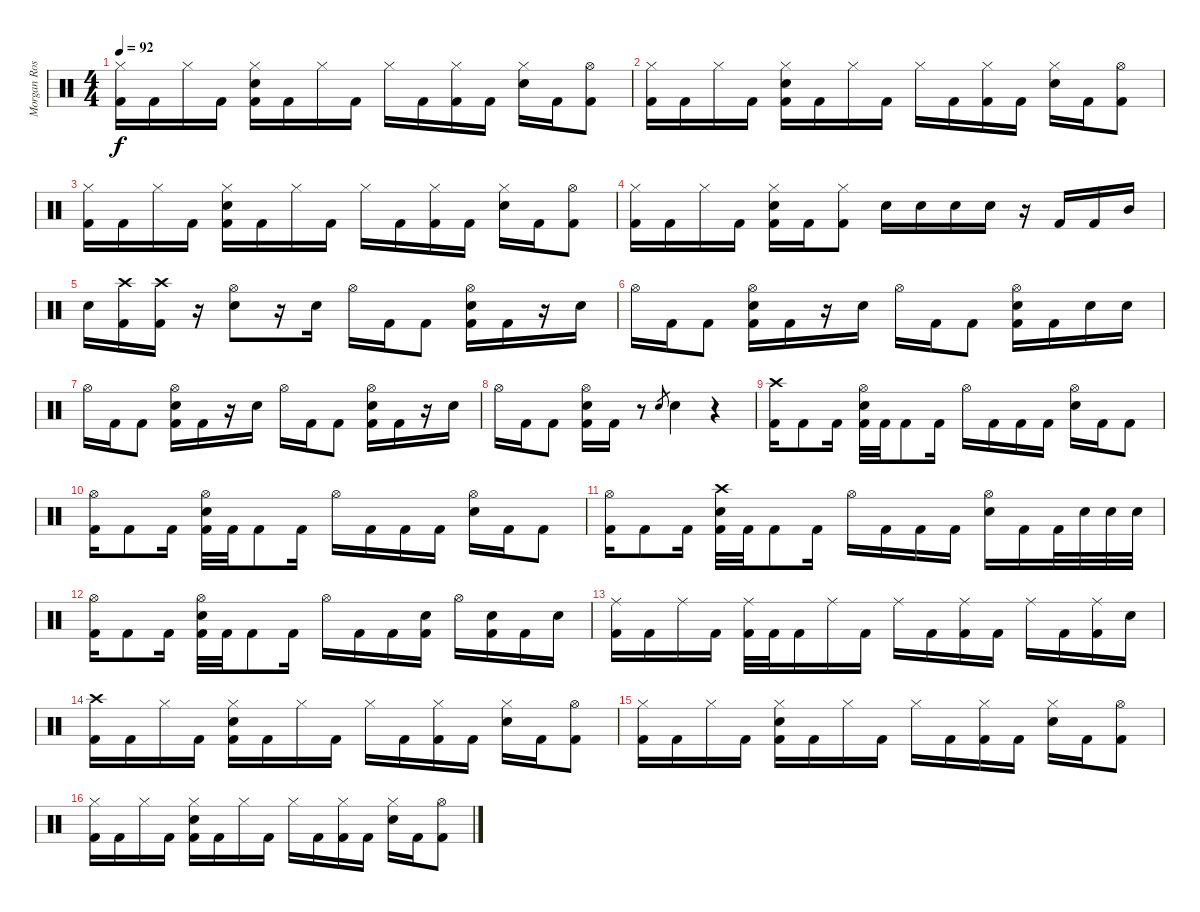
\track ("Morgan Rose - Drums" "Morgan Ros") {instrument percussion}
\staff {score}
\articulation defaults
\ts (4 4)
\tempo 92
\clef neutral
\ks c
("Hi-Hat (closed)" "Kick (hit) 2").16{dy f} "Kick (hit) 2".16 "Hi-Hat (closed)".16 "Kick (hit) 2".16 ("Hi-Hat (closed)" "Electric Snare (hit)" "Kick (hit) 2").16 "Kick (hit) 2".16 "Hi-Hat (closed)".16 "Kick (hit) 2".16 "Hi-Hat (closed)".16 "Kick (hit) 2".16 ("Hi-Hat (closed)" "Kick (hit) 2").16 "Kick (hit) 2".16 ("Hi-Hat (closed)" "Electric Snare (hit)").16 "Kick (hit) 2".16 ("Hi-Hat (open)" "Kick (hit) 2").8 |
("Hi-Hat (closed)" "Kick (hit) 2").16 "Kick (hit) 2".16 "Hi-Hat (closed)".16 "Kick (hit) 2".16 ("Hi-Hat (closed)" "Electric Snare (hit)" "Kick (hit) 2").16 "Kick (hit) 2".16 "Hi-Hat (closed)".16 "Kick (hit) 2".16 "Hi-Hat (closed)".16 "Kick (hit) 2".16 ("Hi-Hat (closed)" "Kick (hit) 2").16 "Kick (hit) 2".16 ("Hi-Hat (closed)" "Electric Snare (hit)").16 "Kick (hit) 2".16 ("Hi-Hat (open)" "Kick (hit) 2").8 |
("Hi-Hat (closed)" "Kick (hit) 2").16 "Kick (hit) 2".16 "Hi-Hat (closed)".16 "Kick (hit) 2".16 ("Hi-Hat (closed)" "Electric Snare (hit)" "Kick (hit) 2").16 "Kick (hit) 2".16 "Hi-Hat (closed)".16 "Kick (hit) 2".16 "Hi-Hat (closed)".16 "Kick (hit) 2".16 ("Hi-Hat (closed)" "Kick (hit) 2").16 "Kick (hit) 2".16 ("Hi-Hat (closed)" "Electric Snare (hit)").16 "Kick (hit) 2".16 ("Hi-Hat (open)" "Kick (hit) 2").8 |
("Hi-Hat (closed)" "Kick (hit) 2").16 "Kick (hit) 2".16 "Hi-Hat (closed)".16 "Kick (hit) 2".16 ("Hi-Hat (closed)" "Electric Snare (hit)" "Kick (hit) 2").16 "Kick (hit) 2".16 ("Hi-Hat (closed)" "Kick (hit) 2").8 "Electric Snare (hit)".16 "Electric Snare (hit)".16 "Electric Snare (hit)".16 "Electric Snare (hit)".16 r.16 "Kick (hit) 2".16 "Kick (hit) 2".16 "Mid Tom (hit)".16 |
"Electric Snare (hit)".16 ("Crash high (hit)" "Kick (hit) 2").16 ("Crash high (hit)" "Kick (hit) 2").16 r.16 ("Hi-Hat (open)" "Electric Snare (hit)").8 r.16 "Electric Snare (hit)".16 "Hi-Hat (open)".16 "Kick (hit) 2".16 "Kick (hit) 2".8 ("Hi-Hat (open)" "Electric Snare (hit)" "Kick (hit) 2").16 "Kick (hit) 2".16 r.16 "Electric Snare (hit)".16 |
"Hi-Hat (open)".16 "Kick (hit) 2".16 "Kick (hit) 2".8 ("Hi-Hat (open)" "Electric Snare (hit)" "Kick (hit) 2").16 "Kick (hit) 2".16 r.16 "Electric Snare (hit)".16 "Hi-Hat (open)".16 "Kick (hit) 2".16 "Kick (hit) 2".8 ("Hi-Hat (open)" "Electric Snare (hit)" "Kick (hit) 2").16 "Kick (hit) 2".16 "Electric Snare (hit)".16 "Electric Snare (hit)".16 |
"Hi-Hat (open)".16 "Kick (hit) 2".16 "Kick (hit) 2".8 ("Hi-Hat (open)" "Electric Snare (hit)" "Kick (hit) 2").16 "Kick (hit) 2".16 r.16 "Electric Snare (hit)".16 "Hi-Hat (open)".16 "Kick (hit) 2".16 "Kick (hit) 2".8 ("Hi-Hat (open)" "Electric Snare (hit)" "Kick (hit) 2").16 "Kick (hit) 2".16 r.16 "Electric Snare (hit)".16 |
"Hi-Hat (open)".16 "Kick (hit) 2".16 "Kick (hit) 2".8 ("Hi-Hat (open)" "Electric Snare (hit)" "Kick (hit) 2").16 "Kick (hit) 2".16 r.8 "Electric Snare (hit)".8{gr} "Electric Snare (hit)".4 r.4 |
("Crash high (hit)" "Kick (hit) 2").16 "Kick (hit) 2".8 "Kick (hit) 2".16 ("Hi-Hat (open)" "Electric Snare (hit)" "Kick (hit) 2").32 "Kick (hit) 2".32 "Kick (hit) 2".8 "Kick (hit) 2".16 "Hi-Hat (open)".16 "Kick (hit) 2".16 "Kick (hit) 2".16 "Kick (hit) 2".16 ("Hi-Hat (open)" "Electric Snare (hit)").16 "Kick (hit) 2".16 "Kick (hit) 2".8 |
("Hi-Hat (open)" "Kick (hit) 2").16 "Kick (hit) 2".8 "Kick (hit) 2".16 ("Hi-Hat (open)" "Electric Snare (hit)" "Kick (hit) 2").32 "Kick (hit) 2".32 "Kick (hit) 2".8 "Kick (hit) 2".16 "Hi-Hat (open)".16 "Kick (hit) 2".16 "Kick (hit) 2".16 "Kick (hit) 2".16 ("Hi-Hat (open)" "Electric Snare (hit)").16 "Kick (hit) 2".16 "Kick (hit) 2".8 |
("Hi-Hat (open)" "Kick (hit) 2").16 "Kick (hit) 2".8 "Kick (hit) 2".16 ("Crash high (hit)" "Electric Snare (hit)" "Kick (hit) 2").32 "Kick (hit) 2".32 "Kick (hit) 2".8 "Kick (hit) 2".16 "Hi-Hat (open)".16 "Kick (hit) 2".16 "Kick (hit) 2".16 "Kick (hit) 2".16 ("Hi-Hat (open)" "Electric Snare (hit)").16 "Kick (hit) 2".16 "Kick (hit) 2".32 "Electric Snare (hit)".32 "Electric Snare (hit)".32 "Electric Snare (hit)".32 |
("Hi-Hat (open)" "Kick (hit) 2").16 "Kick (hit) 2".8 "Kick (hit) 2".16 ("Hi-Hat (open)" "Electric Snare (hit)" "Kick (hit) 2").32 "Kick (hit) 2".32 "Kick (hit) 2".8 "Kick (hit) 2".16 "Hi-Hat (open)".16 "Kick (hit) 2".16 "Kick (hit) 2".16 ("Electric Snare (hit)" "Kick (hit) 2").16 "Hi-Hat (open)".16 ("Electric Snare (hit)" "Kick (hit) 2").16 "Kick (hit) 2".16 "Electric Snare (hit)".16 |
("Ride (middle)" "Kick (hit) 2").16 "Kick (hit) 2".16 "Ride (middle)".16 "Kick (hit) 2".16 ("Ride (middle)" "Kick (hit) 2").32 "Kick (hit) 2".32 "Kick (hit) 2".16 "Ride (middle)".16 "Kick (hit) 2".16 "Ride (middle)".16 "Kick (hit) 2".16 ("Ride (middle)" "Kick (hit) 2").16 "Kick (hit) 2".16 "Ride (middle)".16 "Kick (hit) 2".16 ("Ride (middle)" "Kick (hit) 2").16 "Electric Snare (hit)".16 |
("Crash high (hit)" "Kick (hit) 2").16 "Kick (hit) 2".16 "Hi-Hat (closed)".16 "Kick (hit) 2".16 ("Hi-Hat (closed)" "Electric Snare (hit)" "Kick (hit) 2").16 "Kick (hit) 2".16 "Hi-Hat (closed)".16 "Kick (hit) 2".16 "Hi-Hat (closed)".16 "Kick (hit) 2".16 ("Hi-Hat (closed)" "Kick (hit) 2").16 "Kick (hit) 2".16 ("Hi-Hat (closed)" "Electric Snare (hit)").16 "Kick (hit) 2".16 ("Hi-Hat (open)" "Kick (hit) 2").8 |
("Hi-Hat (closed)" "Kick (hit) 2").16 "Kick (hit) 2".16 "Hi-Hat (closed)".16 "Kick (hit) 2".16 ("Hi-Hat (closed)" "Electric Snare (hit)" "Kick (hit) 2").16 "Kick (hit) 2".16 "Hi-Hat (closed)".16 "Kick (hit) 2".16 "Hi-Hat (closed)".16 "Kick (hit) 2".16 ("Hi-Hat (closed)" "Kick (hit) 2").16 "Kick (hit) 2".16 ("Hi-Hat (closed)" "Electric Snare (hit)").16 "Kick (hit) 2".16 ("Hi-Hat (open)" "Kick (hit) 2").8 |
("Hi-Hat (closed)" "Kick (hit) 2").16 "Kick (hit) 2".16 "Hi-Hat (closed)".16 "Kick (hit) 2".16 ("Hi-Hat (closed)" "Electric Snare (hit)" "Kick (hit) 2").16 "Kick (hit) 2".16 "Hi-Hat (closed)".16 "Kick (hit) 2".16 "Hi-Hat (closed)".16 "Kick (hit) 2".16 ("Hi-Hat (closed)" "Kick (hit) 2").16 "Kick (hit) 2".16 ("Hi-Hat (closed)" "Electric Snare (hit)").16 "Kick (hit) 2".16 ("Hi-Hat (open)" "Kick (hit) 2").8
